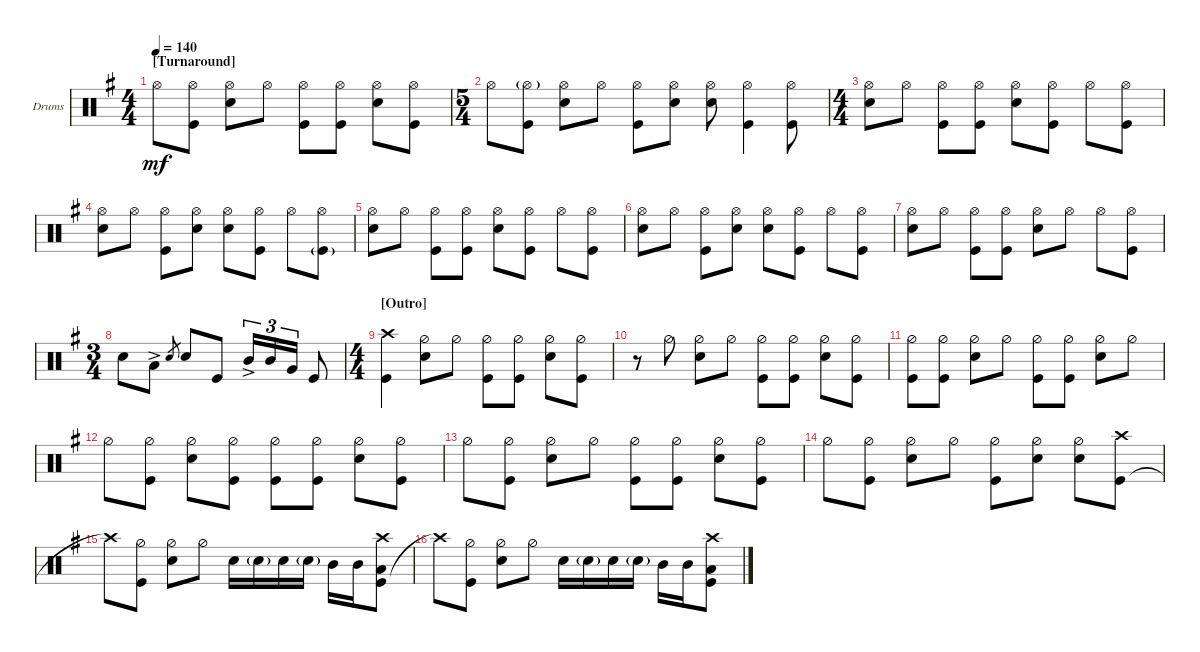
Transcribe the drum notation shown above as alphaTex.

\defaultSystemsLayout 4
\bracketExtendMode groupsimilarinstruments
\firstSystemTrackNameOrientation horizontal
\otherSystemsTrackNameOrientation horizontal
\track ("Drumkit" "Drums") {instrument percussion}
\staff {score}
\articulation defaults
\ts (4 4)
\section ("" "[Turnaround]")
\tempo 140
\clef neutral
\ks g "Hi-Hat (open)"{t}.8{dy mf}
("Kick (hit)" "Hi-Hat (open)").8 ("Hi-Hat (open)" "Snare (hit) 2").8 "Hi-Hat (open)".8 ("Hi-Hat (open)" "Kick (hit)").8 ("Hi-Hat (open)" "Kick (hit)").8 ("Hi-Hat (open)" "Snare (hit) 2").8 ("Hi-Hat (open)" "Kick (hit)").8 |
\ts (5 4)
"Hi-Hat (open)".8 ("Kick (hit)" "Hi-Hat (open)"{g}).8 ("Hi-Hat (open)" "Snare (hit) 2").8 "Hi-Hat (open)".8 ("Hi-Hat (open)" "Kick (hit)").8 ("Snare (hit) 2" "Hi-Hat (open)").8 ("Hi-Hat (open)" "Snare (hit) 2").8 ("Hi-Hat (open)" "Kick (hit)").4 ("Kick (hit)" "Hi-Hat (open)").8 |
\ts (4 4)
("Hi-Hat (open)" "Snare (hit) 2").8 "Hi-Hat (open)".8 ("Hi-Hat (open)" "Kick (hit)").8 ("Hi-Hat (open)" "Kick (hit)").8 ("Hi-Hat (open)" "Snare (hit) 2").8 ("Hi-Hat (open)" "Kick (hit)").8 "Hi-Hat (open)".8 ("Hi-Hat (open)" "Kick (hit)").8 |
("Hi-Hat (open)" "Snare (hit) 2").8 "Hi-Hat (open)".8 ("Hi-Hat (open)" "Kick (hit)").8 ("Hi-Hat (open)" "Snare (hit) 2").8 ("Hi-Hat (open)" "Snare (hit) 2").8 ("Hi-Hat (open)" "Kick (hit)").8 "Hi-Hat (open)".8 ("Hi-Hat (open)" "Kick (hit)"{g}).8 |
("Hi-Hat (open)" "Snare (hit) 2").8 "Hi-Hat (open)".8 ("Hi-Hat (open)" "Kick (hit)").8 ("Hi-Hat (open)" "Kick (hit)").8 ("Hi-Hat (open)" "Snare (hit) 2").8 ("Hi-Hat (open)" "Kick (hit)").8 "Hi-Hat (open)".8 ("Hi-Hat (open)" "Kick (hit)").8 |
("Hi-Hat (open)" "Snare (hit) 2").8 "Hi-Hat (open)".8 ("Hi-Hat (open)" "Kick (hit)").8 ("Hi-Hat (open)" "Snare (hit) 2").8 ("Hi-Hat (open)" "Snare (hit) 2").8 ("Hi-Hat (open)" "Kick (hit)").8 "Hi-Hat (open)".8 ("Hi-Hat (open)" "Kick (hit)").8 |
("Hi-Hat (open)" "Snare (hit) 2").8 "Hi-Hat (open)".8 ("Hi-Hat (open)" "Kick (hit)").8 ("Hi-Hat (open)" "Kick (hit)").8 ("Hi-Hat (open)" "Snare (hit) 2").8 "Hi-Hat (open)".8 "Hi-Hat (open)".8 ("Hi-Hat (open)" "Kick (hit)").8 |
\ts (3 4)
"Snare (hit) 2".8 "Low Tom (hit)"{ac}.8 "Snare (hit) 2".8{gr} "Snare (hit) 2".8 "Kick (hit)".8 "Mid Tom (hit)"{ac}.16{tu (3 2)} "Mid Tom (hit)".16{tu (3 2)} "Very Low Tom (hit)".16{tu (3 2)} "Kick (hit)".8 |
\ts (4 4)
\section ("" "[Outro]")
("Crash high (hit)" "Kick (hit)").4 ("Hi-Hat (half)" "Snare (hit) 2").8 "Hi-Hat (half)".8 ("Hi-Hat (half)" "Kick (hit)").8 ("Hi-Hat (half)" "Kick (hit)").8 ("Hi-Hat (half)" "Snare (hit) 2").8 ("Hi-Hat (half)" "Kick (hit)").8 |
r.8 "Hi-Hat (half)".8 ("Hi-Hat (half)" "Snare (hit) 2").8 "Hi-Hat (half)".8 ("Hi-Hat (half)" "Kick (hit)").8 ("Hi-Hat (half)" "Kick (hit)").8 ("Hi-Hat (half)" "Snare (hit) 2").8 ("Hi-Hat (half)" "Kick (hit)").8 |
("Hi-Hat (half)" "Kick (hit)").8 ("Hi-Hat (half)" "Kick (hit)").8 ("Hi-Hat (half)" "Snare (hit) 2").8 "Hi-Hat (half)".8 ("Hi-Hat (half)" "Kick (hit)").8 ("Hi-Hat (half)" "Kick (hit)").8 ("Hi-Hat (half)" "Snare (hit) 2").8 "Hi-Hat (half)".8 |
"Hi-Hat (half)".8 ("Hi-Hat (half)" "Kick (hit)").8 ("Hi-Hat (half)" "Snare (hit) 2").8 ("Hi-Hat (half)" "Kick (hit)").8 ("Hi-Hat (half)" "Kick (hit)").8 ("Hi-Hat (half)" "Kick (hit)").8 ("Hi-Hat (half)" "Snare (hit) 2").8 ("Hi-Hat (half)" "Kick (hit)").8 |
"Hi-Hat (half)".8 ("Hi-Hat (half)" "Kick (hit)").8 ("Hi-Hat (half)" "Snare (hit) 2").8 "Hi-Hat (half)".8 ("Hi-Hat (half)" "Kick (hit)").8 ("Hi-Hat (half)" "Kick (hit)").8 ("Hi-Hat (half)" "Snare (hit) 2").8 ("Hi-Hat (half)" "Kick (hit)").8 |
"Hi-Hat (half)".8 ("Hi-Hat (half)" "Kick (hit)").8 ("Hi-Hat (half)" "Snare (hit) 2").8 "Hi-Hat (half)".8 ("Hi-Hat (half)" "Kick (hit)").8 ("Hi-Hat (half)" "Snare (hit) 2").8 ("Hi-Hat (half)" "Snare (hit) 2").8 ("Kick (hit)" "Crash high (hit)").8 |
"Crash high (hit)"{t}.8 ("Kick (hit)" "Hi-Hat (half)").8 ("Hi-Hat (half)" "Snare (hit) 2").8 "Hi-Hat (half)".8 "Snare (hit) 2".16 "Snare (hit) 2"{g}.16 "Snare (hit) 2".16 "Snare (hit) 2"{g}.16 "Mid Tom (hit)".16 "Mid Tom (hit)".16 ("Kick (hit)" "Low Tom (hit)" "Crash high (hit)").8 |
"Crash high (hit)"{t}.8 ("Kick (hit)" "Hi-Hat (half)").8 ("Hi-Hat (half)" "Snare (hit) 2").8 "Hi-Hat (half)".8 "Snare (hit) 2".16 "Snare (hit) 2"{g}.16 "Snare (hit) 2".16 "Snare (hit) 2"{g}.16 "Mid Tom (hit)".16 "Mid Tom (hit)".16 ("Kick (hit)" "Low Tom (hit)" "Crash high (hit)").8
